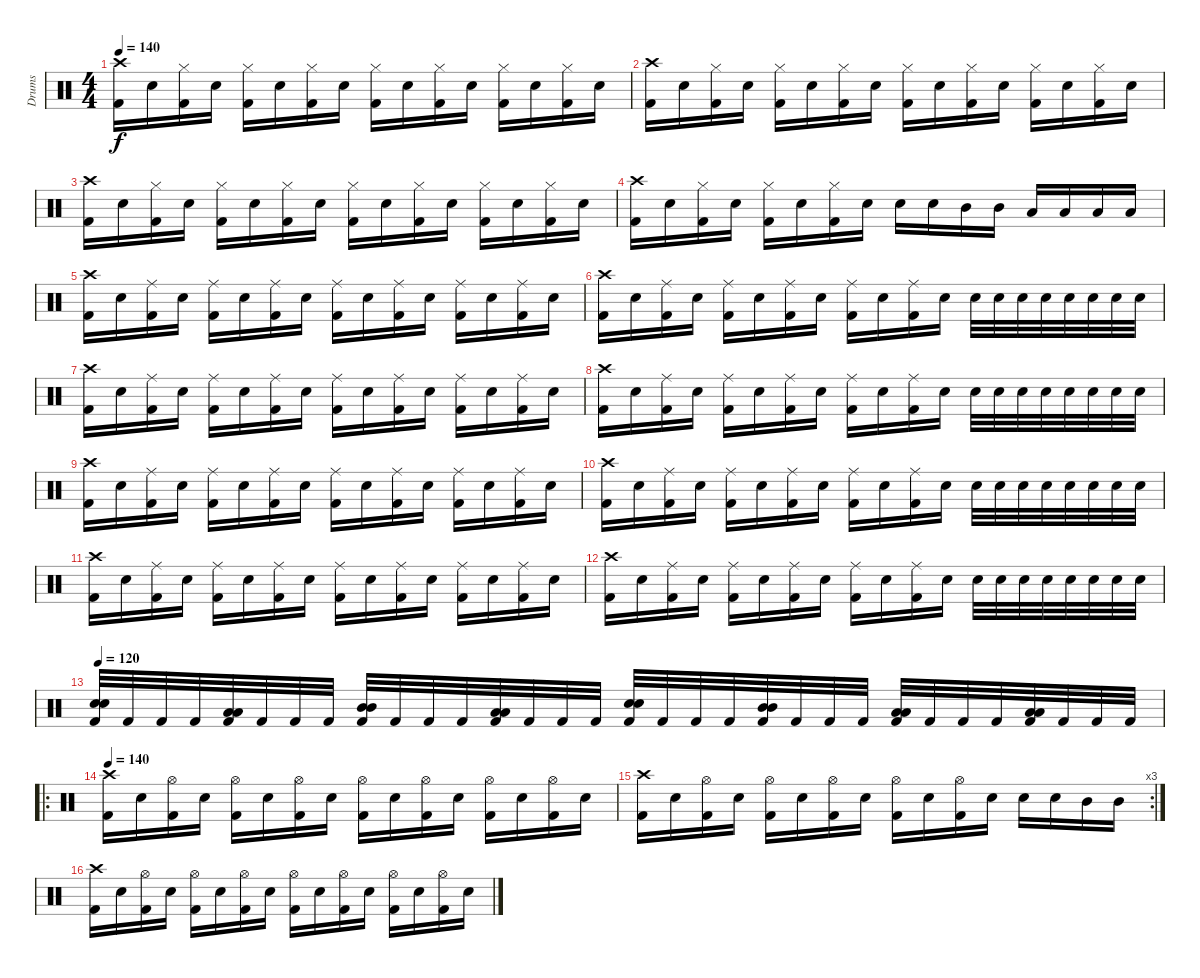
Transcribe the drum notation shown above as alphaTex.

\track ("Drums" "Drums") {instrument percussion}
\staff {score}
\articulation defaults
\ts (4 4)
\tempo 140
\clef neutral
\ks c
("Crash high (hit)" "Kick (hit) 2").16{dy f} "Snare (hit) 2".16 ("Hi-Hat (closed)" "Kick (hit) 2").16 "Snare (hit) 2".16 ("Hi-Hat (closed)" "Kick (hit) 2").16 "Snare (hit) 2".16 ("Hi-Hat (closed)" "Kick (hit) 2").16 "Snare (hit) 2".16 ("Hi-Hat (closed)" "Kick (hit) 2").16 "Snare (hit) 2".16 ("Hi-Hat (closed)" "Kick (hit) 2").16 "Snare (hit) 2".16 ("Hi-Hat (closed)" "Kick (hit) 2").16 "Snare (hit) 2".16 ("Hi-Hat (closed)" "Kick (hit) 2").16 "Snare (hit) 2".16 |
("Crash high (hit)" "Kick (hit) 2").16 "Snare (hit) 2".16 ("Hi-Hat (closed)" "Kick (hit) 2").16 "Snare (hit) 2".16 ("Hi-Hat (closed)" "Kick (hit) 2").16 "Snare (hit) 2".16 ("Hi-Hat (closed)" "Kick (hit) 2").16 "Snare (hit) 2".16 ("Hi-Hat (closed)" "Kick (hit) 2").16 "Snare (hit) 2".16 ("Hi-Hat (closed)" "Kick (hit) 2").16 "Snare (hit) 2".16 ("Hi-Hat (closed)" "Kick (hit) 2").16 "Snare (hit) 2".16 ("Hi-Hat (closed)" "Kick (hit) 2").16 "Snare (hit) 2".16 |
("Crash high (hit)" "Kick (hit) 2").16 "Snare (hit) 2".16 ("Hi-Hat (closed)" "Kick (hit) 2").16 "Snare (hit) 2".16 ("Hi-Hat (closed)" "Kick (hit) 2").16 "Snare (hit) 2".16 ("Hi-Hat (closed)" "Kick (hit) 2").16 "Snare (hit) 2".16 ("Hi-Hat (closed)" "Kick (hit) 2").16 "Snare (hit) 2".16 ("Hi-Hat (closed)" "Kick (hit) 2").16 "Snare (hit) 2".16 ("Hi-Hat (closed)" "Kick (hit) 2").16 "Snare (hit) 2".16 ("Hi-Hat (closed)" "Kick (hit) 2").16 "Snare (hit) 2".16 |
("Crash high (hit)" "Kick (hit) 2").16 "Snare (hit) 2".16 ("Hi-Hat (closed)" "Kick (hit) 2").16 "Snare (hit) 2".16 ("Hi-Hat (closed)" "Kick (hit) 2").16 "Snare (hit) 2".16 ("Hi-Hat (closed)" "Kick (hit) 2").16 "Snare (hit) 2".16 "Snare (hit) 2".16 "Snare (hit) 2".16 "Mid Tom (hit)".16 "Mid Tom (hit)".16 "Low Tom (hit)".16 "Low Tom (hit)".16 "Low Floor Tom (hit)".16 "Low Floor Tom (hit)".16 |
("Crash high (hit)" "Kick (hit) 2").16 "Snare (hit) 2".16 ("Ride (middle)" "Kick (hit) 2").16 "Snare (hit) 2".16 ("Ride (middle)" "Kick (hit) 2").16 "Snare (hit) 2".16 ("Ride (middle)" "Kick (hit) 2").16 "Snare (hit) 2".16 ("Ride (middle)" "Kick (hit) 2").16 "Snare (hit) 2".16 ("Ride (middle)" "Kick (hit) 2").16 "Snare (hit) 2".16 ("Ride (middle)" "Kick (hit) 2").16 "Snare (hit) 2".16 ("Ride (middle)" "Kick (hit) 2").16 "Snare (hit) 2".16 |
("Crash high (hit)" "Kick (hit) 2").16 "Snare (hit) 2".16 ("Ride (middle)" "Kick (hit) 2").16 "Snare (hit) 2".16 ("Ride (middle)" "Kick (hit) 2").16 "Snare (hit) 2".16 ("Ride (middle)" "Kick (hit) 2").16 "Snare (hit) 2".16 ("Ride (middle)" "Kick (hit) 2").16 "Snare (hit) 2".16 ("Ride (middle)" "Kick (hit) 2").16 "Snare (hit) 2".16 "Snare (hit) 2".32 "Snare (hit) 2".32 "Snare (hit) 2".32 "Snare (hit) 2".32 "Snare (hit) 2".32 "Snare (hit) 2".32 "Snare (hit) 2".32 "Snare (hit) 2".32 |
("Crash high (hit)" "Kick (hit) 2").16 "Snare (hit) 2".16 ("Ride (middle)" "Kick (hit) 2").16 "Snare (hit) 2".16 ("Ride (middle)" "Kick (hit) 2").16 "Snare (hit) 2".16 ("Ride (middle)" "Kick (hit) 2").16 "Snare (hit) 2".16 ("Ride (middle)" "Kick (hit) 2").16 "Snare (hit) 2".16 ("Ride (middle)" "Kick (hit) 2").16 "Snare (hit) 2".16 ("Ride (middle)" "Kick (hit) 2").16 "Snare (hit) 2".16 ("Ride (middle)" "Kick (hit) 2").16 "Snare (hit) 2".16 |
("Crash high (hit)" "Kick (hit) 2").16 "Snare (hit) 2".16 ("Ride (middle)" "Kick (hit) 2").16 "Snare (hit) 2".16 ("Ride (middle)" "Kick (hit) 2").16 "Snare (hit) 2".16 ("Ride (middle)" "Kick (hit) 2").16 "Snare (hit) 2".16 ("Ride (middle)" "Kick (hit) 2").16 "Snare (hit) 2".16 ("Ride (middle)" "Kick (hit) 2").16 "Snare (hit) 2".16 "Snare (hit) 2".32 "Snare (hit) 2".32 "Snare (hit) 2".32 "Snare (hit) 2".32 "Snare (hit) 2".32 "Snare (hit) 2".32 "Snare (hit) 2".32 "Snare (hit) 2".32 |
("Crash high (hit)" "Kick (hit) 2").16 "Snare (hit) 2".16 ("Ride (middle)" "Kick (hit) 2").16 "Snare (hit) 2".16 ("Ride (middle)" "Kick (hit) 2").16 "Snare (hit) 2".16 ("Ride (middle)" "Kick (hit) 2").16 "Snare (hit) 2".16 ("Ride (middle)" "Kick (hit) 2").16 "Snare (hit) 2".16 ("Ride (middle)" "Kick (hit) 2").16 "Snare (hit) 2".16 ("Ride (middle)" "Kick (hit) 2").16 "Snare (hit) 2".16 ("Ride (middle)" "Kick (hit) 2").16 "Snare (hit) 2".16 |
("Crash high (hit)" "Kick (hit) 2").16 "Snare (hit) 2".16 ("Ride (middle)" "Kick (hit) 2").16 "Snare (hit) 2".16 ("Ride (middle)" "Kick (hit) 2").16 "Snare (hit) 2".16 ("Ride (middle)" "Kick (hit) 2").16 "Snare (hit) 2".16 ("Ride (middle)" "Kick (hit) 2").16 "Snare (hit) 2".16 ("Ride (middle)" "Kick (hit) 2").16 "Snare (hit) 2".16 "Snare (hit) 2".32 "Snare (hit) 2".32 "Snare (hit) 2".32 "Snare (hit) 2".32 "Snare (hit) 2".32 "Snare (hit) 2".32 "Snare (hit) 2".32 "Snare (hit) 2".32 |
("Crash high (hit)" "Kick (hit) 2").16 "Snare (hit) 2".16 ("Ride (middle)" "Kick (hit) 2").16 "Snare (hit) 2".16 ("Ride (middle)" "Kick (hit) 2").16 "Snare (hit) 2".16 ("Ride (middle)" "Kick (hit) 2").16 "Snare (hit) 2".16 ("Ride (middle)" "Kick (hit) 2").16 "Snare (hit) 2".16 ("Ride (middle)" "Kick (hit) 2").16 "Snare (hit) 2".16 ("Ride (middle)" "Kick (hit) 2").16 "Snare (hit) 2".16 ("Ride (middle)" "Kick (hit) 2").16 "Snare (hit) 2".16 |
("Crash high (hit)" "Kick (hit) 2").16 "Snare (hit) 2".16 ("Ride (middle)" "Kick (hit) 2").16 "Snare (hit) 2".16 ("Ride (middle)" "Kick (hit) 2").16 "Snare (hit) 2".16 ("Ride (middle)" "Kick (hit) 2").16 "Snare (hit) 2".16 ("Ride (middle)" "Kick (hit) 2").16 "Snare (hit) 2".16 ("Ride (middle)" "Kick (hit) 2").16 "Snare (hit) 2".16 "Snare (hit) 2".32 "Snare (hit) 2".32 "Snare (hit) 2".32 "Snare (hit) 2".32 "Snare (hit) 2".32 "Snare (hit) 2".32 "Snare (hit) 2".32 "Snare (hit) 2".32 |
\tempo 120
("Snare (hit) 2" "Snare (hit) 2" "Kick (hit) 2").32 "Kick (hit) 2".32 "Kick (hit) 2".32 "Kick (hit) 2".32 ("Low Tom (hit)" "Low Tom (hit)" "Kick (hit) 2").32 "Kick (hit) 2".32 "Kick (hit) 2".32 "Kick (hit) 2".32 ("Mid Tom (hit)" "Mid Tom (hit)" "Kick (hit) 2").32 "Kick (hit) 2".32 "Kick (hit) 2".32 "Kick (hit) 2".32 ("Low Floor Tom (hit)" "Low Floor Tom (hit)" "Kick (hit) 2").32 "Kick (hit) 2".32 "Kick (hit) 2".32 "Kick (hit) 2".32 ("Snare (hit) 2" "Snare (hit) 2" "Kick (hit) 2").32 "Kick (hit) 2".32 "Kick (hit) 2".32 "Kick (hit) 2".32 ("Mid Tom (hit)" "Mid Tom (hit)" "Kick (hit) 2").32 "Kick (hit) 2".32 "Kick (hit) 2".32 "Kick (hit) 2".32 ("Low Tom (hit)" "Low Tom (hit)" "Kick (hit) 2").32 "Kick (hit) 2".32 "Kick (hit) 2".32 "Kick (hit) 2".32 ("Low Floor Tom (hit)" "Low Floor Tom (hit)" "Kick (hit) 2").32 "Kick (hit) 2".32 "Kick (hit) 2".32 "Kick (hit) 2".32 |
\ro
\tempo 140
("Crash high (hit)" "Kick (hit) 2").16 "Snare (hit) 2".16 ("Hi-Hat (open)" "Kick (hit) 2").16 "Snare (hit) 2".16 ("Hi-Hat (open)" "Kick (hit) 2").16 "Snare (hit) 2".16 ("Hi-Hat (open)" "Kick (hit) 2").16 "Snare (hit) 2".16 ("Hi-Hat (open)" "Kick (hit) 2").16 "Snare (hit) 2".16 ("Hi-Hat (open)" "Kick (hit) 2").16 "Snare (hit) 2".16 ("Hi-Hat (open)" "Kick (hit) 2").16 "Snare (hit) 2".16 ("Hi-Hat (open)" "Kick (hit) 2").16 "Snare (hit) 2".16 |
\rc 3
("Crash high (hit)" "Kick (hit) 2").16 "Snare (hit) 2".16 ("Hi-Hat (open)" "Kick (hit) 2").16 "Snare (hit) 2".16 ("Hi-Hat (open)" "Kick (hit) 2").16 "Snare (hit) 2".16 ("Hi-Hat (open)" "Kick (hit) 2").16 "Snare (hit) 2".16 ("Hi-Hat (open)" "Kick (hit) 2").16 "Snare (hit) 2".16 ("Hi-Hat (open)" "Kick (hit) 2").16 "Snare (hit) 2".16 "Snare (hit) 2".16 "Snare (hit) 2".16 "Mid Tom (hit)".16 "Mid Tom (hit)".16 |
("Crash high (hit)" "Kick (hit) 2").16 "Snare (hit) 2".16 ("Hi-Hat (open)" "Kick (hit) 2").16 "Snare (hit) 2".16 ("Hi-Hat (open)" "Kick (hit) 2").16 "Snare (hit) 2".16 ("Hi-Hat (open)" "Kick (hit) 2").16 "Snare (hit) 2".16 ("Hi-Hat (open)" "Kick (hit) 2").16 "Snare (hit) 2".16 ("Hi-Hat (open)" "Kick (hit) 2").16 "Snare (hit) 2".16 ("Hi-Hat (open)" "Kick (hit) 2").16 "Snare (hit) 2".16 ("Hi-Hat (open)" "Kick (hit) 2").16 "Snare (hit) 2".16
